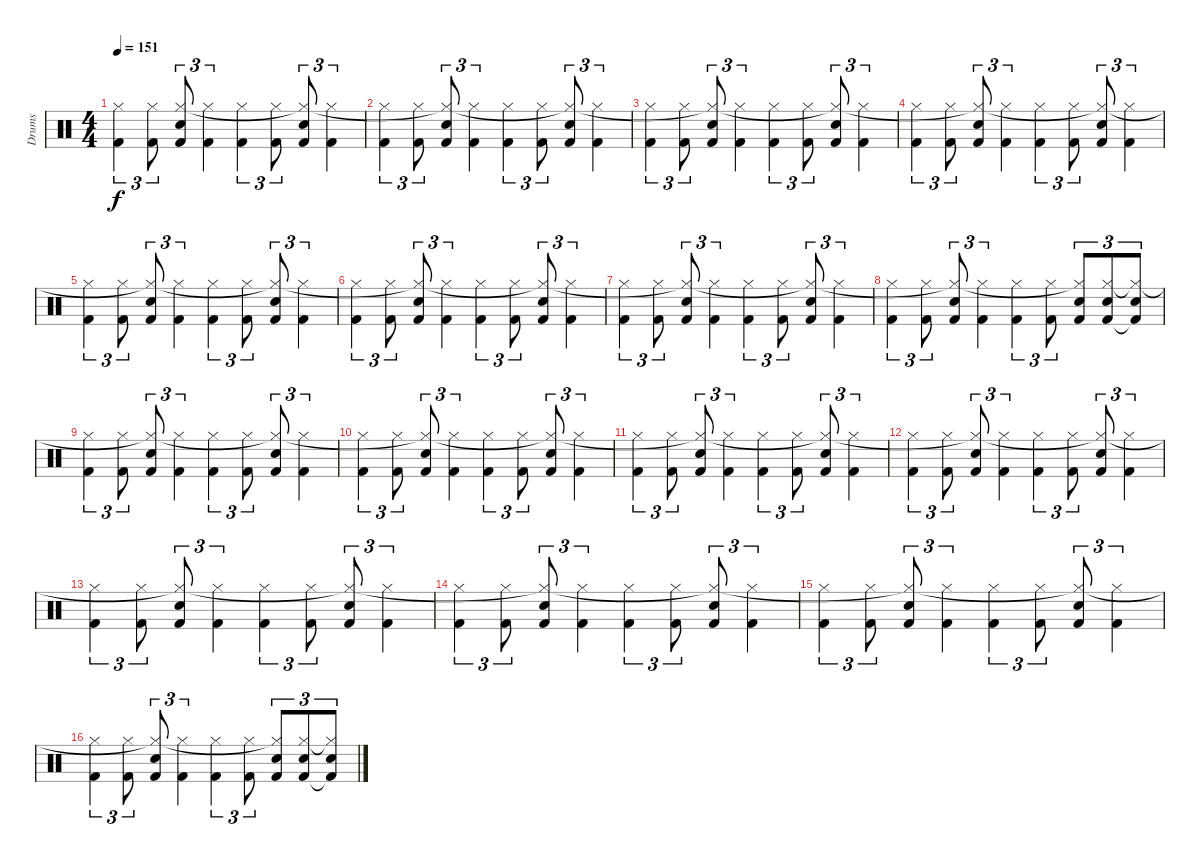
\track ("Drums" "Drums") {instrument percussion}
\staff {score}
\articulation defaults
\ts (4 4)
\tempo 151
\clef neutral
\ks c
("Kick (hit) 2" "Hi-Hat (closed)").4{tu (3 2) dy f} ("Kick (hit) 2" "Hi-Hat (closed)").8{tu (3 2)} ("Electric Snare (hit)" "Kick (hit) 2" "Hi-Hat (closed)").8{tu (3 2)} ("Kick (hit) 2" "Hi-Hat (closed)").4{tu (3 2)} ("Kick (hit) 2" "Hi-Hat (closed)").4{tu (3 2)} ("Kick (hit) 2" "Hi-Hat (closed)").8{tu (3 2)} ("Electric Snare (hit)" "Kick (hit) 2" "Hi-Hat (closed)"{t}).8{tu (3 2)} ("Kick (hit) 2" "Hi-Hat (closed)").4{tu (3 2)} |
("Kick (hit) 2" "Hi-Hat (closed)").4{tu (3 2)} ("Kick (hit) 2" "Hi-Hat (closed)").8{tu (3 2)} ("Electric Snare (hit)" "Kick (hit) 2" "Hi-Hat (closed)"{t}).8{tu (3 2)} ("Kick (hit) 2" "Hi-Hat (closed)").4{tu (3 2)} ("Kick (hit) 2" "Hi-Hat (closed)").4{tu (3 2)} ("Kick (hit) 2" "Hi-Hat (closed)").8{tu (3 2)} ("Electric Snare (hit)" "Kick (hit) 2" "Hi-Hat (closed)"{t}).8{tu (3 2)} ("Kick (hit) 2" "Hi-Hat (closed)").4{tu (3 2)} |
("Kick (hit) 2" "Hi-Hat (closed)").4{tu (3 2)} ("Kick (hit) 2" "Hi-Hat (closed)").8{tu (3 2)} ("Electric Snare (hit)" "Kick (hit) 2" "Hi-Hat (closed)"{t}).8{tu (3 2)} ("Kick (hit) 2" "Hi-Hat (closed)").4{tu (3 2)} ("Kick (hit) 2" "Hi-Hat (closed)").4{tu (3 2)} ("Kick (hit) 2" "Hi-Hat (closed)").8{tu (3 2)} ("Electric Snare (hit)" "Kick (hit) 2" "Hi-Hat (closed)"{t}).8{tu (3 2)} ("Kick (hit) 2" "Hi-Hat (closed)").4{tu (3 2)} |
("Kick (hit) 2" "Hi-Hat (closed)").4{tu (3 2)} ("Kick (hit) 2" "Hi-Hat (closed)").8{tu (3 2)} ("Electric Snare (hit)" "Kick (hit) 2" "Hi-Hat (closed)"{t}).8{tu (3 2)} ("Kick (hit) 2" "Hi-Hat (closed)").4{tu (3 2)} ("Kick (hit) 2" "Hi-Hat (closed)").4{tu (3 2)} ("Kick (hit) 2" "Hi-Hat (closed)").8{tu (3 2)} ("Electric Snare (hit)" "Kick (hit) 2" "Hi-Hat (closed)"{t}).8{tu (3 2)} ("Kick (hit) 2" "Hi-Hat (closed)").4{tu (3 2)} |
("Kick (hit) 2" "Hi-Hat (closed)").4{tu (3 2)} ("Kick (hit) 2" "Hi-Hat (closed)").8{tu (3 2)} ("Electric Snare (hit)" "Kick (hit) 2" "Hi-Hat (closed)"{t}).8{tu (3 2)} ("Kick (hit) 2" "Hi-Hat (closed)").4{tu (3 2)} ("Kick (hit) 2" "Hi-Hat (closed)").4{tu (3 2)} ("Kick (hit) 2" "Hi-Hat (closed)").8{tu (3 2)} ("Electric Snare (hit)" "Kick (hit) 2" "Hi-Hat (closed)"{t}).8{tu (3 2)} ("Kick (hit) 2" "Hi-Hat (closed)").4{tu (3 2)} |
("Kick (hit) 2" "Hi-Hat (closed)").4{tu (3 2)} ("Kick (hit) 2" "Hi-Hat (closed)").8{tu (3 2)} ("Electric Snare (hit)" "Kick (hit) 2" "Hi-Hat (closed)"{t}).8{tu (3 2)} ("Kick (hit) 2" "Hi-Hat (closed)").4{tu (3 2)} ("Kick (hit) 2" "Hi-Hat (closed)").4{tu (3 2)} ("Kick (hit) 2" "Hi-Hat (closed)").8{tu (3 2)} ("Electric Snare (hit)" "Kick (hit) 2" "Hi-Hat (closed)"{t}).8{tu (3 2)} ("Kick (hit) 2" "Hi-Hat (closed)").4{tu (3 2)} |
("Kick (hit) 2" "Hi-Hat (closed)").4{tu (3 2)} ("Kick (hit) 2" "Hi-Hat (closed)").8{tu (3 2)} ("Electric Snare (hit)" "Kick (hit) 2" "Hi-Hat (closed)"{t}).8{tu (3 2)} ("Kick (hit) 2" "Hi-Hat (closed)").4{tu (3 2)} ("Kick (hit) 2" "Hi-Hat (closed)").4{tu (3 2)} ("Kick (hit) 2" "Hi-Hat (closed)").8{tu (3 2)} ("Electric Snare (hit)" "Kick (hit) 2" "Hi-Hat (closed)"{t}).8{tu (3 2)} ("Kick (hit) 2" "Hi-Hat (closed)").4{tu (3 2)} |
("Kick (hit) 2" "Hi-Hat (closed)").4{tu (3 2)} ("Kick (hit) 2" "Hi-Hat (closed)").8{tu (3 2)} ("Electric Snare (hit)" "Kick (hit) 2" "Hi-Hat (closed)"{t}).8{tu (3 2)} ("Kick (hit) 2" "Hi-Hat (closed)").4{tu (3 2)} ("Kick (hit) 2" "Hi-Hat (closed)").4{tu (3 2)} ("Kick (hit) 2" "Hi-Hat (closed)").8{tu (3 2)} ("Electric Snare (hit)" "Kick (hit) 2" "Hi-Hat (closed)"{t}).8{tu (3 2)} ("Electric Snare (hit)" "Kick (hit) 2" "Hi-Hat (closed)").8{tu (3 2)} ("Electric Snare (hit)" "Kick (hit) 2"{t} "Hi-Hat (closed)"{t}).8{tu (3 2)} |
("Kick (hit) 2" "Hi-Hat (closed)").4{tu (3 2)} ("Kick (hit) 2" "Hi-Hat (closed)").8{tu (3 2)} ("Electric Snare (hit)" "Kick (hit) 2" "Hi-Hat (closed)"{t}).8{tu (3 2)} ("Kick (hit) 2" "Hi-Hat (closed)").4{tu (3 2)} ("Kick (hit) 2" "Hi-Hat (closed)").4{tu (3 2)} ("Kick (hit) 2" "Hi-Hat (closed)").8{tu (3 2)} ("Electric Snare (hit)" "Kick (hit) 2" "Hi-Hat (closed)"{t}).8{tu (3 2)} ("Kick (hit) 2" "Hi-Hat (closed)").4{tu (3 2)} |
("Kick (hit) 2" "Hi-Hat (closed)").4{tu (3 2)} ("Kick (hit) 2" "Hi-Hat (closed)").8{tu (3 2)} ("Electric Snare (hit)" "Kick (hit) 2" "Hi-Hat (closed)"{t}).8{tu (3 2)} ("Kick (hit) 2" "Hi-Hat (closed)").4{tu (3 2)} ("Kick (hit) 2" "Hi-Hat (closed)").4{tu (3 2)} ("Kick (hit) 2" "Hi-Hat (closed)").8{tu (3 2)} ("Electric Snare (hit)" "Kick (hit) 2" "Hi-Hat (closed)"{t}).8{tu (3 2)} ("Kick (hit) 2" "Hi-Hat (closed)").4{tu (3 2)} |
("Kick (hit) 2" "Hi-Hat (closed)").4{tu (3 2)} ("Kick (hit) 2" "Hi-Hat (closed)").8{tu (3 2)} ("Electric Snare (hit)" "Kick (hit) 2" "Hi-Hat (closed)"{t}).8{tu (3 2)} ("Kick (hit) 2" "Hi-Hat (closed)").4{tu (3 2)} ("Kick (hit) 2" "Hi-Hat (closed)").4{tu (3 2)} ("Kick (hit) 2" "Hi-Hat (closed)").8{tu (3 2)} ("Electric Snare (hit)" "Kick (hit) 2" "Hi-Hat (closed)"{t}).8{tu (3 2)} ("Kick (hit) 2" "Hi-Hat (closed)").4{tu (3 2)} |
("Kick (hit) 2" "Hi-Hat (closed)").4{tu (3 2)} ("Kick (hit) 2" "Hi-Hat (closed)").8{tu (3 2)} ("Electric Snare (hit)" "Kick (hit) 2" "Hi-Hat (closed)"{t}).8{tu (3 2)} ("Kick (hit) 2" "Hi-Hat (closed)").4{tu (3 2)} ("Kick (hit) 2" "Hi-Hat (closed)").4{tu (3 2)} ("Kick (hit) 2" "Hi-Hat (closed)").8{tu (3 2)} ("Electric Snare (hit)" "Kick (hit) 2" "Hi-Hat (closed)"{t}).8{tu (3 2)} ("Kick (hit) 2" "Hi-Hat (closed)").4{tu (3 2)} |
("Kick (hit) 2" "Hi-Hat (closed)").4{tu (3 2)} ("Kick (hit) 2" "Hi-Hat (closed)").8{tu (3 2)} ("Electric Snare (hit)" "Kick (hit) 2" "Hi-Hat (closed)"{t}).8{tu (3 2)} ("Kick (hit) 2" "Hi-Hat (closed)").4{tu (3 2)} ("Kick (hit) 2" "Hi-Hat (closed)").4{tu (3 2)} ("Kick (hit) 2" "Hi-Hat (closed)").8{tu (3 2)} ("Electric Snare (hit)" "Kick (hit) 2" "Hi-Hat (closed)"{t}).8{tu (3 2)} ("Kick (hit) 2" "Hi-Hat (closed)").4{tu (3 2)} |
("Kick (hit) 2" "Hi-Hat (closed)").4{tu (3 2)} ("Kick (hit) 2" "Hi-Hat (closed)").8{tu (3 2)} ("Electric Snare (hit)" "Kick (hit) 2" "Hi-Hat (closed)"{t}).8{tu (3 2)} ("Kick (hit) 2" "Hi-Hat (closed)").4{tu (3 2)} ("Kick (hit) 2" "Hi-Hat (closed)").4{tu (3 2)} ("Kick (hit) 2" "Hi-Hat (closed)").8{tu (3 2)} ("Electric Snare (hit)" "Kick (hit) 2" "Hi-Hat (closed)"{t}).8{tu (3 2)} ("Kick (hit) 2" "Hi-Hat (closed)").4{tu (3 2)} |
("Kick (hit) 2" "Hi-Hat (closed)").4{tu (3 2)} ("Kick (hit) 2" "Hi-Hat (closed)").8{tu (3 2)} ("Electric Snare (hit)" "Kick (hit) 2" "Hi-Hat (closed)"{t}).8{tu (3 2)} ("Kick (hit) 2" "Hi-Hat (closed)").4{tu (3 2)} ("Kick (hit) 2" "Hi-Hat (closed)").4{tu (3 2)} ("Kick (hit) 2" "Hi-Hat (closed)").8{tu (3 2)} ("Electric Snare (hit)" "Kick (hit) 2" "Hi-Hat (closed)"{t}).8{tu (3 2)} ("Kick (hit) 2" "Hi-Hat (closed)").4{tu (3 2)} |
("Kick (hit) 2" "Hi-Hat (closed)").4{tu (3 2)} ("Kick (hit) 2" "Hi-Hat (closed)").8{tu (3 2)} ("Electric Snare (hit)" "Kick (hit) 2" "Hi-Hat (closed)"{t}).8{tu (3 2)} ("Kick (hit) 2" "Hi-Hat (closed)").4{tu (3 2)} ("Kick (hit) 2" "Hi-Hat (closed)").4{tu (3 2)} ("Kick (hit) 2" "Hi-Hat (closed)").8{tu (3 2)} ("Electric Snare (hit)" "Kick (hit) 2" "Hi-Hat (closed)"{t}).8{tu (3 2)} ("Electric Snare (hit)" "Kick (hit) 2" "Hi-Hat (closed)").8{tu (3 2)} ("Electric Snare (hit)" "Kick (hit) 2"{t} "Hi-Hat (closed)"{t}).8{tu (3 2)}
